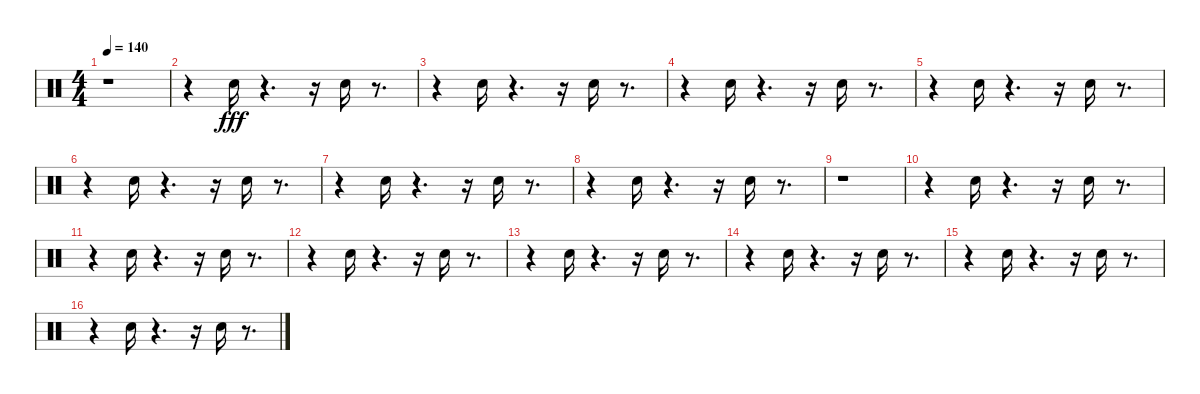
\track "" {instrument percussion}
\staff {score}
\articulation defaults
\ts (4 4)
\tempo 140
\clef neutral
\ks c
r.1{dy fff} |
r.4 "Snare (hit) 2".16 r.4{d} r.16 "Snare (hit) 2".16 r.8{d} |
r.4 "Snare (hit) 2".16 r.4{d} r.16 "Snare (hit) 2".16 r.8{d} |
r.4 "Snare (hit) 2".16 r.4{d} r.16 "Snare (hit) 2".16 r.8{d} |
r.4 "Snare (hit) 2".16 r.4{d} r.16 "Snare (hit) 2".16 r.8{d} |
r.4 "Snare (hit) 2".16 r.4{d} r.16 "Snare (hit) 2".16 r.8{d} |
r.4 "Snare (hit) 2".16 r.4{d} r.16 "Snare (hit) 2".16 r.8{d} |
r.4 "Snare (hit) 2".16 r.4{d} r.16 "Snare (hit) 2".16 r.8{d} |
r.1 |
r.4 "Snare (hit) 2".16 r.4{d} r.16 "Snare (hit) 2".16 r.8{d} |
r.4 "Snare (hit) 2".16 r.4{d} r.16 "Snare (hit) 2".16 r.8{d} |
r.4 "Snare (hit) 2".16 r.4{d} r.16 "Snare (hit) 2".16 r.8{d} |
r.4 "Snare (hit) 2".16 r.4{d} r.16 "Snare (hit) 2".16 r.8{d} |
r.4 "Snare (hit) 2".16 r.4{d} r.16 "Snare (hit) 2".16 r.8{d} |
r.4 "Snare (hit) 2".16 r.4{d} r.16 "Snare (hit) 2".16 r.8{d} |
r.4 "Snare (hit) 2".16 r.4{d} r.16 "Snare (hit) 2".16 r.8{d}
